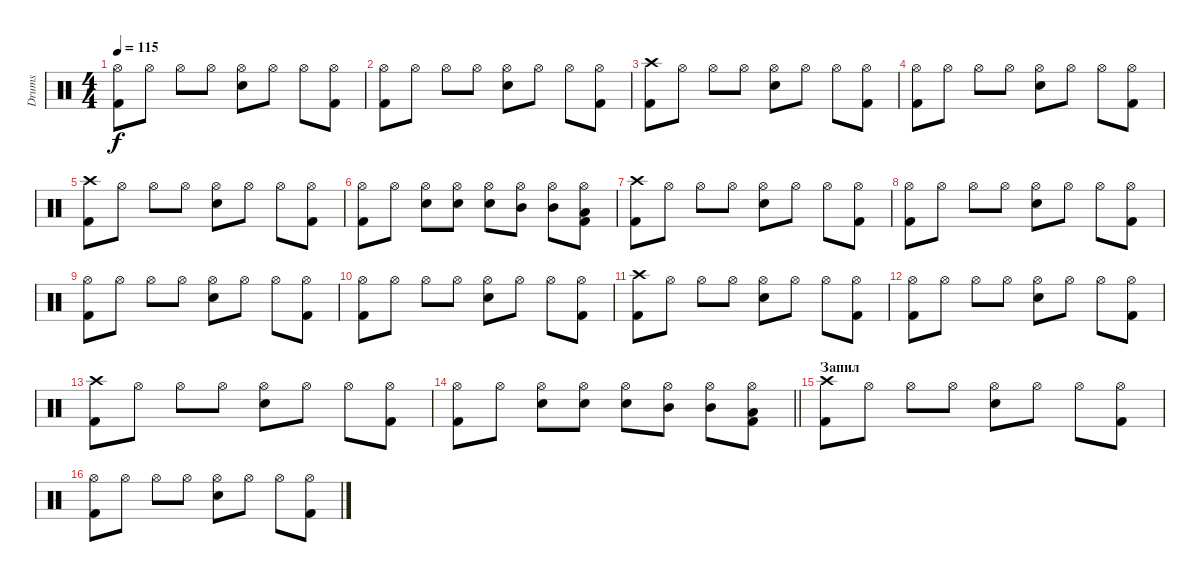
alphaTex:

\track ("Drums" "Drums") {instrument percussion}
\staff
\articulation defaults
\ts (4 4)
\tempo 115
\clef neutral
\ks c
("Hi-Hat (open)" "Kick (hit) 2").8{dy f} "Hi-Hat (open)".8 "Hi-Hat (open)".8 "Hi-Hat (open)".8 ("Snare (hit) 2" "Hi-Hat (open)").8 "Hi-Hat (open)".8 "Hi-Hat (open)".8 ("Hi-Hat (open)" "Kick (hit) 2").8 |
("Hi-Hat (open)" "Kick (hit) 2").8 "Hi-Hat (open)".8 "Hi-Hat (open)".8 "Hi-Hat (open)".8 ("Snare (hit) 2" "Hi-Hat (open)").8 "Hi-Hat (open)".8 "Hi-Hat (open)".8 ("Hi-Hat (open)" "Kick (hit) 2").8 |
("Crash high (hit)" "Kick (hit) 2").8 "Hi-Hat (open)".8 "Hi-Hat (open)".8 "Hi-Hat (open)".8 ("Snare (hit) 2" "Hi-Hat (open)").8 "Hi-Hat (open)".8 "Hi-Hat (open)".8 ("Hi-Hat (open)" "Kick (hit) 2").8 |
("Hi-Hat (open)" "Kick (hit) 2").8 "Hi-Hat (open)".8 "Hi-Hat (open)".8 "Hi-Hat (open)".8 ("Snare (hit) 2" "Hi-Hat (open)").8 "Hi-Hat (open)".8 "Hi-Hat (open)".8 ("Hi-Hat (open)" "Kick (hit) 2").8 |
("Crash high (hit)" "Kick (hit) 2").8 "Hi-Hat (open)".8 "Hi-Hat (open)".8 "Hi-Hat (open)".8 ("Snare (hit) 2" "Hi-Hat (open)").8 "Hi-Hat (open)".8 "Hi-Hat (open)".8 ("Hi-Hat (open)" "Kick (hit) 2").8 |
("Hi-Hat (open)" "Kick (hit) 2").8 "Hi-Hat (open)".8 ("Snare (hit) 2" "Hi-Hat (open)").8 ("Snare (hit) 2" "Hi-Hat (open)").8 ("Snare (hit) 2" "Hi-Hat (open)").8 ("Mid Tom (hit)" "Hi-Hat (open)").8 ("Mid Tom (hit)" "Hi-Hat (open)").8 ("Low Tom (hit)" "Hi-Hat (open)" "Kick (hit) 2").8 |
("Crash high (hit)" "Kick (hit) 2").8 "Hi-Hat (open)".8 "Hi-Hat (open)".8 "Hi-Hat (open)".8 ("Snare (hit) 2" "Hi-Hat (open)").8 "Hi-Hat (open)".8 "Hi-Hat (open)".8 ("Hi-Hat (open)" "Kick (hit) 2").8 |
("Hi-Hat (open)" "Kick (hit) 2").8 "Hi-Hat (open)".8 "Hi-Hat (open)".8 "Hi-Hat (open)".8 ("Snare (hit) 2" "Hi-Hat (open)").8 "Hi-Hat (open)".8 "Hi-Hat (open)".8 ("Hi-Hat (open)" "Kick (hit) 2").8 |
("Hi-Hat (open)" "Kick (hit) 2").8 "Hi-Hat (open)".8 "Hi-Hat (open)".8 "Hi-Hat (open)".8 ("Snare (hit) 2" "Hi-Hat (open)").8 "Hi-Hat (open)".8 "Hi-Hat (open)".8 ("Hi-Hat (open)" "Kick (hit) 2").8 |
("Hi-Hat (open)" "Kick (hit) 2").8 "Hi-Hat (open)".8 "Hi-Hat (open)".8 "Hi-Hat (open)".8 ("Snare (hit) 2" "Hi-Hat (open)").8 "Hi-Hat (open)".8 "Hi-Hat (open)".8 ("Hi-Hat (open)" "Kick (hit) 2").8 |
("Crash high (hit)" "Kick (hit) 2").8 "Hi-Hat (open)".8 "Hi-Hat (open)".8 "Hi-Hat (open)".8 ("Snare (hit) 2" "Hi-Hat (open)").8 "Hi-Hat (open)".8 "Hi-Hat (open)".8 ("Hi-Hat (open)" "Kick (hit) 2").8 |
("Hi-Hat (open)" "Kick (hit) 2").8 "Hi-Hat (open)".8 "Hi-Hat (open)".8 "Hi-Hat (open)".8 ("Snare (hit) 2" "Hi-Hat (open)").8 "Hi-Hat (open)".8 "Hi-Hat (open)".8 ("Hi-Hat (open)" "Kick (hit) 2").8 |
("Crash high (hit)" "Kick (hit) 2").8 "Hi-Hat (open)".8 "Hi-Hat (open)".8 "Hi-Hat (open)".8 ("Snare (hit) 2" "Hi-Hat (open)").8 "Hi-Hat (open)".8 "Hi-Hat (open)".8 ("Hi-Hat (open)" "Kick (hit) 2").8 |
\barLineRight lightlight
("Hi-Hat (open)" "Kick (hit) 2").8 "Hi-Hat (open)".8 ("Snare (hit) 2" "Hi-Hat (open)").8 ("Snare (hit) 2" "Hi-Hat (open)").8 ("Snare (hit) 2" "Hi-Hat (open)").8 ("Mid Tom (hit)" "Hi-Hat (open)").8 ("Mid Tom (hit)" "Hi-Hat (open)").8 ("Low Tom (hit)" "Hi-Hat (open)" "Kick (hit) 2").8 |
\section ("" "Запил")
("Crash high (hit)" "Kick (hit) 2").8 "Hi-Hat (open)".8 "Hi-Hat (open)".8 "Hi-Hat (open)".8 ("Snare (hit) 2" "Hi-Hat (open)").8 "Hi-Hat (open)".8 "Hi-Hat (open)".8 ("Hi-Hat (open)" "Kick (hit) 2").8 |
("Hi-Hat (open)" "Kick (hit) 2").8 "Hi-Hat (open)".8 "Hi-Hat (open)".8 "Hi-Hat (open)".8 ("Snare (hit) 2" "Hi-Hat (open)").8 "Hi-Hat (open)".8 "Hi-Hat (open)".8 ("Hi-Hat (open)" "Kick (hit) 2").8
